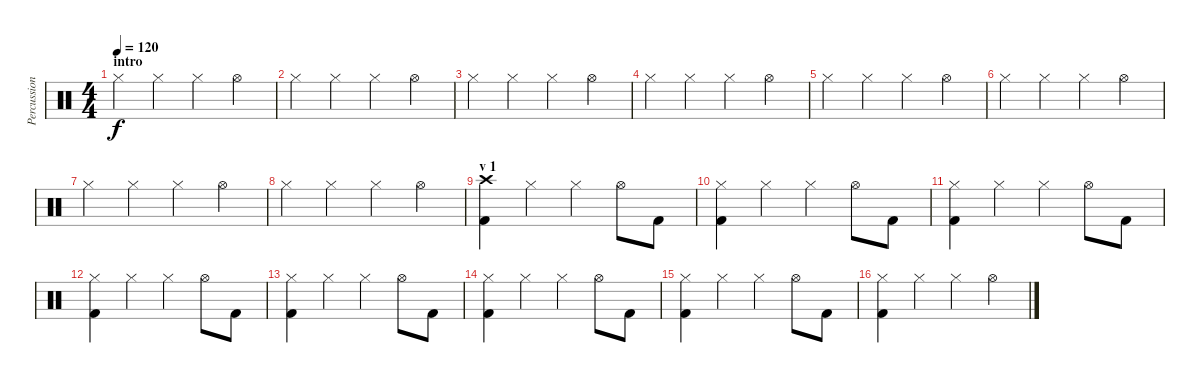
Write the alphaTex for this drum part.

\track ("Percussion" "Percussion") {instrument percussion}
\staff {score}
\articulation defaults
\ts (4 4)
\section ("" "intro")
\tempo 120
\clef neutral
\ks c "Hi-Hat (closed)".4{dy f} "Hi-Hat (closed)".4 "Hi-Hat (closed)".4 "Hi-Hat (open)".4
|
"Hi-Hat (closed)".4 "Hi-Hat (closed)".4 "Hi-Hat (closed)".4 "Hi-Hat (open)".4 |
"Hi-Hat (closed)".4 "Hi-Hat (closed)".4 "Hi-Hat (closed)".4 "Hi-Hat (open)".4 |
"Hi-Hat (closed)".4 "Hi-Hat (closed)".4 "Hi-Hat (closed)".4 "Hi-Hat (open)".4 |
"Hi-Hat (closed)".4 "Hi-Hat (closed)".4 "Hi-Hat (closed)".4 "Hi-Hat (open)".4 |
"Hi-Hat (closed)".4 "Hi-Hat (closed)".4 "Hi-Hat (closed)".4 "Hi-Hat (open)".4 |
"Hi-Hat (closed)".4 "Hi-Hat (closed)".4 "Hi-Hat (closed)".4 "Hi-Hat (open)".4 |
"Hi-Hat (closed)".4 "Hi-Hat (closed)".4 "Hi-Hat (closed)".4 "Hi-Hat (open)".4 |
\section ("" "v 1")
("Crash high (hit)" "Kick (hit) 2").4 "Hi-Hat (closed)".4 "Hi-Hat (closed)".4 "Hi-Hat (open)".8 "Kick (hit) 2".8 |
("Hi-Hat (closed)" "Kick (hit) 2").4 "Hi-Hat (closed)".4 "Hi-Hat (closed)".4 "Hi-Hat (open)".8 "Kick (hit) 2".8 |
("Hi-Hat (closed)" "Kick (hit) 2").4 "Hi-Hat (closed)".4 "Hi-Hat (closed)".4 "Hi-Hat (open)".8 "Kick (hit) 2".8 |
("Hi-Hat (closed)" "Kick (hit) 2").4 "Hi-Hat (closed)".4 "Hi-Hat (closed)".4 "Hi-Hat (open)".8 "Kick (hit) 2".8 |
("Hi-Hat (closed)" "Kick (hit) 2").4 "Hi-Hat (closed)".4 "Hi-Hat (closed)".4 "Hi-Hat (open)".8 "Kick (hit) 2".8 |
("Hi-Hat (closed)" "Kick (hit) 2").4 "Hi-Hat (closed)".4 "Hi-Hat (closed)".4 "Hi-Hat (open)".8 "Kick (hit) 2".8 |
("Hi-Hat (closed)" "Kick (hit) 2").4 "Hi-Hat (closed)".4 "Hi-Hat (closed)".4 "Hi-Hat (open)".8 "Kick (hit) 2".8 |
("Hi-Hat (closed)" "Kick (hit) 2").4 "Hi-Hat (closed)".4 "Hi-Hat (closed)".4 "Hi-Hat (open)".4
